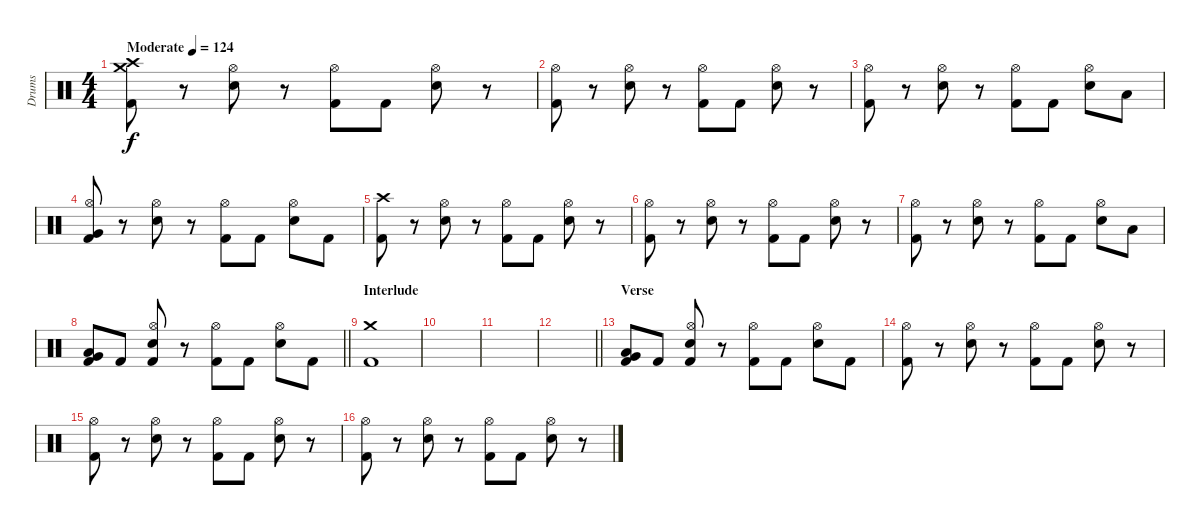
\track ("Drums" "Drums") {instrument percussion}
\staff {score}
\articulation defaults
\ts (4 4)
\tempo (124 "Moderate")
\clef neutral
\ks c
("Crash medium (hit)" "Crash high (hit)" "Kick (hit) 2").8{dy f} r.8 ("Hi-Hat (open)" "Electric Snare (hit)").8 r.8 ("Hi-Hat (open)" "Kick (hit) 2").8 "Kick (hit) 2".8 ("Hi-Hat (open)" "Electric Snare (hit)").8 r.8 |
("Hi-Hat (open)" "Kick (hit) 2").8 r.8 ("Hi-Hat (open)" "Electric Snare (hit)").8 r.8 ("Hi-Hat (open)" "Kick (hit) 2").8 "Kick (hit) 2".8 ("Hi-Hat (open)" "Electric Snare (hit)").8 r.8 |
("Hi-Hat (open)" "Kick (hit) 2").8 r.8 ("Hi-Hat (open)" "Electric Snare (hit)").8 r.8 ("Hi-Hat (open)" "Kick (hit) 2").8 "Kick (hit) 2".8 ("Hi-Hat (open)" "Electric Snare (hit)").8 "Low Tom (hit)".8 |
("Hi-Hat (open)" "Very Low Tom (hit)" "Kick (hit) 2").8 r.8 ("Hi-Hat (open)" "Electric Snare (hit)").8 r.8 ("Hi-Hat (open)" "Kick (hit) 2").8 "Kick (hit) 2".8 ("Hi-Hat (open)" "Electric Snare (hit)").8 "Kick (hit) 2".8 |
("Crash high (hit)" "Kick (hit) 2").8 r.8 ("Hi-Hat (open)" "Electric Snare (hit)").8 r.8 ("Hi-Hat (open)" "Kick (hit) 2").8 "Kick (hit) 2".8 ("Hi-Hat (open)" "Electric Snare (hit)").8 r.8 |
("Hi-Hat (open)" "Kick (hit) 2").8 r.8 ("Hi-Hat (open)" "Electric Snare (hit)").8 r.8 ("Hi-Hat (open)" "Kick (hit) 2").8 "Kick (hit) 2".8 ("Hi-Hat (open)" "Electric Snare (hit)").8 r.8 |
("Hi-Hat (open)" "Kick (hit) 2").8 r.8 ("Hi-Hat (open)" "Electric Snare (hit)").8 r.8 ("Hi-Hat (open)" "Kick (hit) 2").8 "Kick (hit) 2".8 ("Hi-Hat (open)" "Electric Snare (hit)").8 "Low Tom (hit)".8 |
\barLineRight lightlight
("Very Low Tom (hit)" "Low Tom (hit)" "Kick (hit) 2").8 "Kick (hit) 2".8 ("Hi-Hat (open)" "Electric Snare (hit)" "Kick (hit) 2").8 r.8 ("Hi-Hat (open)" "Kick (hit) 2").8 "Kick (hit) 2".8 ("Hi-Hat (open)" "Electric Snare (hit)").8 "Kick (hit) 2".8 |
\section ("" "Interlude")
("Crash medium (hit)" "Kick (hit) 2").1 |
|
|
\barLineRight lightlight
|
\section ("" "Verse")
("Very Low Tom (hit)" "Low Tom (hit)" "Kick (hit) 2").8 "Kick (hit) 2".8 ("Hi-Hat (open)" "Electric Snare (hit)" "Kick (hit) 2").8 r.8 ("Hi-Hat (open)" "Kick (hit) 2").8 "Kick (hit) 2".8 ("Hi-Hat (open)" "Electric Snare (hit)").8 "Kick (hit) 2".8 |
("Hi-Hat (open)" "Kick (hit) 2").8 r.8 ("Hi-Hat (open)" "Electric Snare (hit)").8 r.8 ("Hi-Hat (open)" "Kick (hit) 2").8 "Kick (hit) 2".8 ("Hi-Hat (open)" "Electric Snare (hit)").8 r.8 |
("Hi-Hat (open)" "Kick (hit) 2").8 r.8 ("Hi-Hat (open)" "Electric Snare (hit)").8 r.8 ("Hi-Hat (open)" "Kick (hit) 2").8 "Kick (hit) 2".8 ("Hi-Hat (open)" "Electric Snare (hit)").8 r.8 |
("Hi-Hat (open)" "Kick (hit) 2").8 r.8 ("Hi-Hat (open)" "Electric Snare (hit)").8 r.8 ("Hi-Hat (open)" "Kick (hit) 2").8 "Kick (hit) 2".8 ("Hi-Hat (open)" "Electric Snare (hit)").8 r.8
